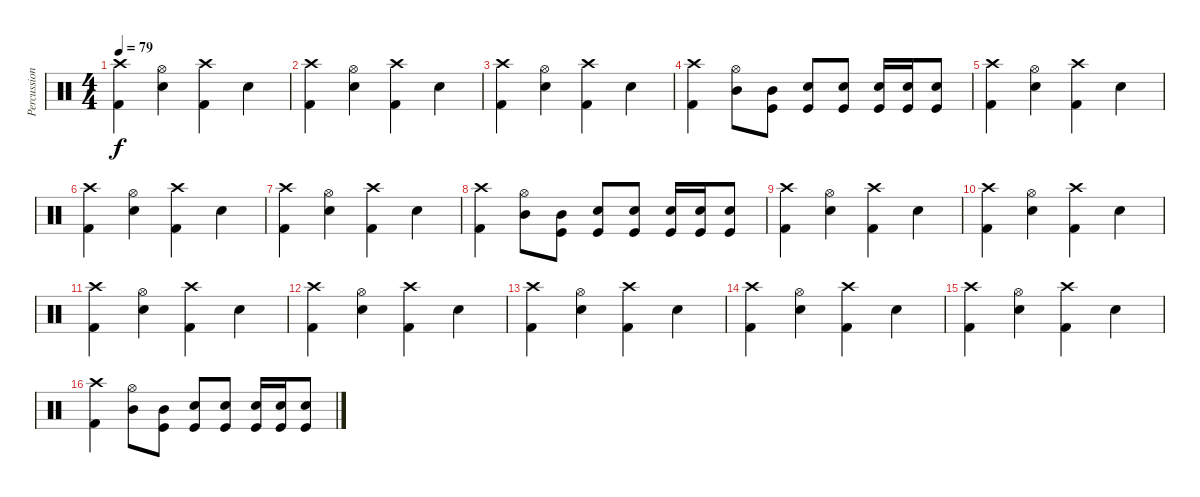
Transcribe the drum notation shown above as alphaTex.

\track ("Percussion" "Percussion") {instrument percussion}
\staff {score}
\articulation defaults
\ts (4 4)
\tempo 79
\clef neutral
\ks c
("Crash high (hit)" "Kick (hit) 2").4{dy f} ("Hi-Hat (open)" "Electric Snare (hit)").4 ("Crash high (hit)" "Kick (hit) 2").4 "Electric Snare (hit)".4 |
("Crash high (hit)" "Kick (hit) 2").4 ("Hi-Hat (open)" "Electric Snare (hit)").4 ("Crash high (hit)" "Kick (hit) 2").4 "Electric Snare (hit)".4 |
("Crash high (hit)" "Kick (hit) 2").4 ("Hi-Hat (open)" "Electric Snare (hit)").4 ("Crash high (hit)" "Kick (hit) 2").4 "Electric Snare (hit)".4 |
("Crash high (hit)" "Kick (hit) 2").4 ("Hi-Hat (open)" "Mid Tom (hit)").8{volume 5} ("Kick (hit)" "Mid Tom (hit)").8{volume 6} ("Kick (hit)" "Snare (hit) 2").8{volume 7} ("Kick (hit)" "Snare (hit) 2").8{volume 8} ("Kick (hit)" "Electric Snare (hit)").16{volume 9} ("Kick (hit)" "Electric Snare (hit)").16{volume 10} ("Kick (hit)" "Electric Snare (hit)").8{volume 12} |
("Crash high (hit)" "Kick (hit) 2").4 ("Hi-Hat (open)" "Electric Snare (hit)").4 ("Crash high (hit)" "Kick (hit) 2").4 "Electric Snare (hit)".4 |
("Crash high (hit)" "Kick (hit) 2").4 ("Hi-Hat (open)" "Electric Snare (hit)").4 ("Crash high (hit)" "Kick (hit) 2").4 "Electric Snare (hit)".4 |
("Crash high (hit)" "Kick (hit) 2").4 ("Hi-Hat (open)" "Electric Snare (hit)").4 ("Crash high (hit)" "Kick (hit) 2").4 "Electric Snare (hit)".4 |
("Crash high (hit)" "Kick (hit) 2").4 ("Hi-Hat (open)" "Mid Tom (hit)").8{volume 5} ("Kick (hit)" "Mid Tom (hit)").8{volume 6} ("Kick (hit)" "Snare (hit) 2").8{volume 7} ("Kick (hit)" "Snare (hit) 2").8{volume 8} ("Kick (hit)" "Electric Snare (hit)").16{volume 9} ("Kick (hit)" "Electric Snare (hit)").16{volume 10} ("Kick (hit)" "Electric Snare (hit)").8{volume 12} |
("Crash high (hit)" "Kick (hit) 2").4 ("Hi-Hat (open)" "Electric Snare (hit)").4 ("Crash high (hit)" "Kick (hit) 2").4 "Electric Snare (hit)".4 |
("Crash high (hit)" "Kick (hit) 2").4 ("Hi-Hat (open)" "Electric Snare (hit)").4 ("Crash high (hit)" "Kick (hit) 2").4 "Electric Snare (hit)".4 |
("Crash high (hit)" "Kick (hit) 2").4 ("Hi-Hat (open)" "Electric Snare (hit)").4 ("Crash high (hit)" "Kick (hit) 2").4 "Electric Snare (hit)".4 |
("Crash high (hit)" "Kick (hit) 2").4 ("Hi-Hat (open)" "Electric Snare (hit)").4 ("Crash high (hit)" "Kick (hit) 2").4 "Electric Snare (hit)".4 |
("Crash high (hit)" "Kick (hit) 2").4 ("Hi-Hat (open)" "Electric Snare (hit)").4 ("Crash high (hit)" "Kick (hit) 2").4 "Electric Snare (hit)".4 |
("Crash high (hit)" "Kick (hit) 2").4 ("Hi-Hat (open)" "Electric Snare (hit)").4 ("Crash high (hit)" "Kick (hit) 2").4 "Electric Snare (hit)".4 |
("Crash high (hit)" "Kick (hit) 2").4 ("Hi-Hat (open)" "Electric Snare (hit)").4 ("Crash high (hit)" "Kick (hit) 2").4 "Electric Snare (hit)".4 |
("Crash high (hit)" "Kick (hit) 2").4 ("Hi-Hat (open)" "Mid Tom (hit)").8{volume 5} ("Kick (hit)" "Mid Tom (hit)").8{volume 6} ("Kick (hit)" "Snare (hit) 2").8{volume 7} ("Kick (hit)" "Snare (hit) 2").8{volume 8} ("Kick (hit)" "Electric Snare (hit)").16{volume 9} ("Kick (hit)" "Electric Snare (hit)").16{volume 10} ("Kick (hit)" "Electric Snare (hit)").8{volume 12}
